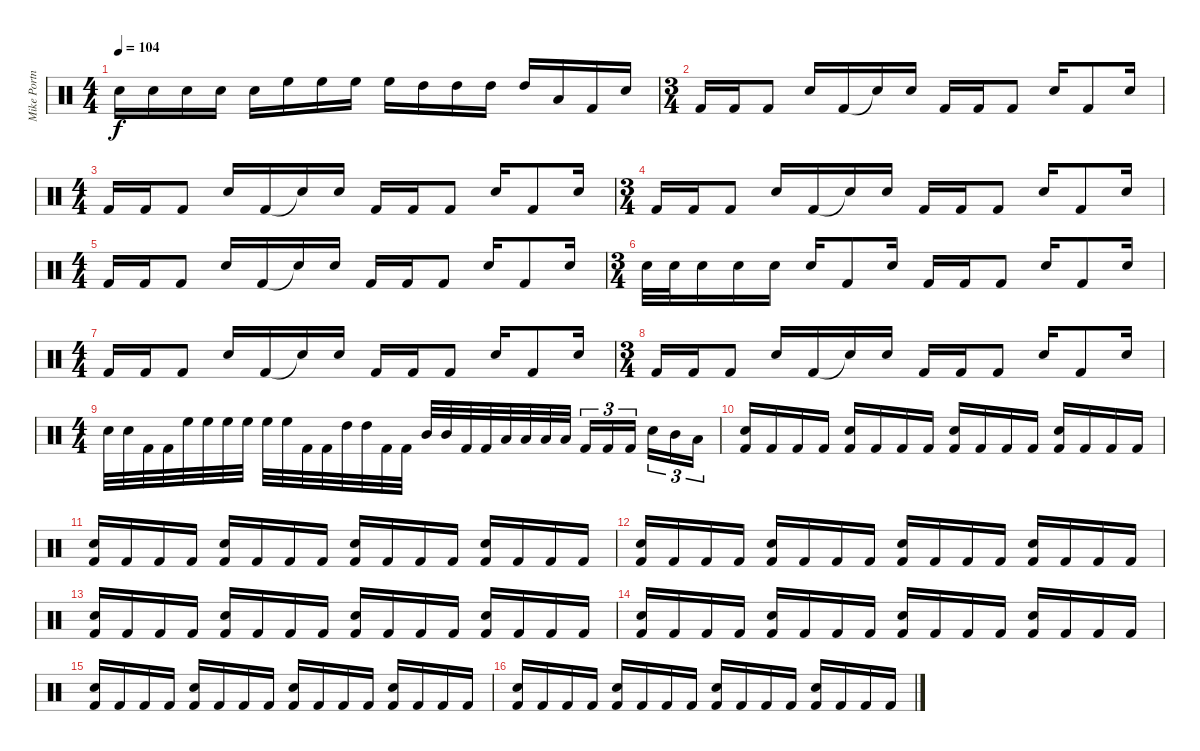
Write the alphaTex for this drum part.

\track ("Mike Portnoy" "Mike Portn") {instrument percussion}
\staff {score}
\articulation defaults
\ts (4 4)
\tempo 104
\clef neutral
\ks c "Snare (hit) 2".16{dy f} "Snare (hit) 2".16 "Snare (hit) 2".16 "Snare (hit) 2".16 "Snare (hit) 2".16 "High Floor Tom (hit)".16 "High Floor Tom (hit)".16 "High Floor Tom (hit)".16 "High Floor Tom (hit)".16 "High Tom (hit)".16 "High Tom (hit)".16 "High Tom (hit)".16 "High Tom (hit)".16 "Low Tom (hit)".16 "Kick (hit) 2".16 "Electric Snare (hit)".16
|
\ts (3 4)
"Kick (hit) 2".16 "Kick (hit) 2".16 "Kick (hit) 2".8 "Snare (hit) 2".16 "Kick (hit) 2".16 "Snare (hit)"{t}.16 "Snare (hit) 2".16 "Kick (hit) 2".16 "Kick (hit) 2".16 "Kick (hit) 2".8 "Snare (hit) 2".16 "Kick (hit) 2".8 "Snare (hit) 2".16 |
\ts (4 4)
"Kick (hit) 2".16 "Kick (hit) 2".16 "Kick (hit) 2".8 "Snare (hit) 2".16 "Kick (hit) 2".16 "Snare (hit)"{t}.16 "Snare (hit) 2".16 "Kick (hit) 2".16 "Kick (hit) 2".16 "Kick (hit) 2".8 "Snare (hit) 2".16 "Kick (hit) 2".8 "Snare (hit) 2".16 |
\ts (3 4)
"Kick (hit) 2".16 "Kick (hit) 2".16 "Kick (hit) 2".8 "Snare (hit) 2".16 "Kick (hit) 2".16 "Snare (hit)"{t}.16 "Snare (hit) 2".16 "Kick (hit) 2".16 "Kick (hit) 2".16 "Kick (hit) 2".8 "Snare (hit) 2".16 "Kick (hit) 2".8 "Snare (hit) 2".16 |
\ts (4 4)
"Kick (hit) 2".16 "Kick (hit) 2".16 "Kick (hit) 2".8 "Snare (hit) 2".16 "Kick (hit) 2".16 "Snare (hit)"{t}.16 "Snare (hit) 2".16 "Kick (hit) 2".16 "Kick (hit) 2".16 "Kick (hit) 2".8 "Snare (hit) 2".16 "Kick (hit) 2".8 "Snare (hit) 2".16 |
\ts (3 4)
"Snare (hit) 2".32 "Snare (hit) 2".32 "Snare (hit) 2".16 "Snare (hit) 2".16 "Snare (hit) 2".16 "Snare (hit) 2".16 "Kick (hit) 2".8 "Snare (hit) 2".16 "Kick (hit) 2".16 "Kick (hit) 2".16 "Kick (hit) 2".8 "Snare (hit) 2".16 "Kick (hit) 2".8 "Snare (hit) 2".16 |
\ts (4 4)
"Kick (hit) 2".16 "Kick (hit) 2".16 "Kick (hit) 2".8 "Snare (hit) 2".16 "Kick (hit) 2".16 "Snare (hit)"{t}.16 "Snare (hit) 2".16 "Kick (hit) 2".16 "Kick (hit) 2".16 "Kick (hit) 2".8 "Snare (hit) 2".16 "Kick (hit) 2".8 "Snare (hit) 2".16 |
\ts (3 4)
"Kick (hit) 2".16 "Kick (hit) 2".16 "Kick (hit) 2".8 "Snare (hit) 2".16 "Kick (hit) 2".16 "Snare (hit)"{t}.16 "Snare (hit) 2".16 "Kick (hit) 2".16 "Kick (hit) 2".16 "Kick (hit) 2".8 "Snare (hit) 2".16 "Kick (hit) 2".8 "Snare (hit) 2".16 |
\ts (4 4)
"Snare (hit) 2".32 "Snare (hit) 2".32 "Kick (hit) 2".32 "Kick (hit) 2".32 "High Floor Tom (hit)".32 "High Floor Tom (hit)".32 "High Floor Tom (hit)".32 "High Floor Tom (hit)".32 "High Floor Tom (hit)".32 "High Floor Tom (hit)".32 "Kick (hit) 2".32 "Kick (hit) 2".32 "High Tom (hit)".32 "High Tom (hit)".32 "Kick (hit) 2".32 "Kick (hit) 2".32 "Mid Tom (hit)".32 "Mid Tom (hit)".32 "Kick (hit) 2".32 "Kick (hit) 2".32 "Low Tom (hit)".32 "Low Tom (hit)".32 "Low Tom (hit)".32 "Low Tom (hit)".32 "Kick (hit) 2".16{tu (3 2)} "Kick (hit) 2".16{tu (3 2)} "Kick (hit) 2".16{tu (3 2)} "Snare (hit) 2".16{tu (3 2)} "Mid Tom (hit)".16{tu (3 2)} "Low Tom (hit)".16{tu (3 2)} |
("Snare (hit) 2" "Kick (hit) 2").16 "Kick (hit) 2".16 "Kick (hit) 2".16 "Kick (hit) 2".16 ("Snare (hit) 2" "Kick (hit) 2").16 "Kick (hit) 2".16 "Kick (hit) 2".16 "Kick (hit) 2".16 ("Snare (hit) 2" "Kick (hit) 2").16 "Kick (hit) 2".16 "Kick (hit) 2".16 "Kick (hit) 2".16 ("Snare (hit) 2" "Kick (hit) 2").16 "Kick (hit) 2".16 "Kick (hit) 2".16 "Kick (hit) 2".16 |
("Snare (hit) 2" "Kick (hit) 2").16 "Kick (hit) 2".16 "Kick (hit) 2".16 "Kick (hit) 2".16 ("Snare (hit) 2" "Kick (hit) 2").16 "Kick (hit) 2".16 "Kick (hit) 2".16 "Kick (hit) 2".16 ("Snare (hit) 2" "Kick (hit) 2").16 "Kick (hit) 2".16 "Kick (hit) 2".16 "Kick (hit) 2".16 ("Snare (hit) 2" "Kick (hit) 2").16 "Kick (hit) 2".16 "Kick (hit) 2".16 "Kick (hit) 2".16 |
("Snare (hit) 2" "Kick (hit) 2").16 "Kick (hit) 2".16 "Kick (hit) 2".16 "Kick (hit) 2".16 ("Snare (hit) 2" "Kick (hit) 2").16 "Kick (hit) 2".16 "Kick (hit) 2".16 "Kick (hit) 2".16 ("Snare (hit) 2" "Kick (hit) 2").16 "Kick (hit) 2".16 "Kick (hit) 2".16 "Kick (hit) 2".16 ("Snare (hit) 2" "Kick (hit) 2").16 "Kick (hit) 2".16 "Kick (hit) 2".16 "Kick (hit) 2".16 |
("Snare (hit) 2" "Kick (hit) 2").16 "Kick (hit) 2".16 "Kick (hit) 2".16 "Kick (hit) 2".16 ("Snare (hit) 2" "Kick (hit) 2").16 "Kick (hit) 2".16 "Kick (hit) 2".16 "Kick (hit) 2".16 ("Snare (hit) 2" "Kick (hit) 2").16 "Kick (hit) 2".16 "Kick (hit) 2".16 "Kick (hit) 2".16 ("Snare (hit) 2" "Kick (hit) 2").16 "Kick (hit) 2".16 "Kick (hit) 2".16 "Kick (hit) 2".16 |
("Snare (hit) 2" "Kick (hit) 2").16 "Kick (hit) 2".16 "Kick (hit) 2".16 "Kick (hit) 2".16 ("Snare (hit) 2" "Kick (hit) 2").16 "Kick (hit) 2".16 "Kick (hit) 2".16 "Kick (hit) 2".16 ("Snare (hit) 2" "Kick (hit) 2").16 "Kick (hit) 2".16 "Kick (hit) 2".16 "Kick (hit) 2".16 ("Snare (hit) 2" "Kick (hit) 2").16 "Kick (hit) 2".16 "Kick (hit) 2".16 "Kick (hit) 2".16 |
("Snare (hit) 2" "Kick (hit) 2").16 "Kick (hit) 2".16 "Kick (hit) 2".16 "Kick (hit) 2".16 ("Snare (hit) 2" "Kick (hit) 2").16 "Kick (hit) 2".16 "Kick (hit) 2".16 "Kick (hit) 2".16 ("Snare (hit) 2" "Kick (hit) 2").16 "Kick (hit) 2".16 "Kick (hit) 2".16 "Kick (hit) 2".16 ("Snare (hit) 2" "Kick (hit) 2").16 "Kick (hit) 2".16 "Kick (hit) 2".16 "Kick (hit) 2".16 |
("Snare (hit) 2" "Kick (hit) 2").16 "Kick (hit) 2".16 "Kick (hit) 2".16 "Kick (hit) 2".16 ("Snare (hit) 2" "Kick (hit) 2").16 "Kick (hit) 2".16 "Kick (hit) 2".16 "Kick (hit) 2".16 ("Snare (hit) 2" "Kick (hit) 2").16 "Kick (hit) 2".16 "Kick (hit) 2".16 "Kick (hit) 2".16 ("Snare (hit) 2" "Kick (hit) 2").16 "Kick (hit) 2".16 "Kick (hit) 2".16 "Kick (hit) 2".16
